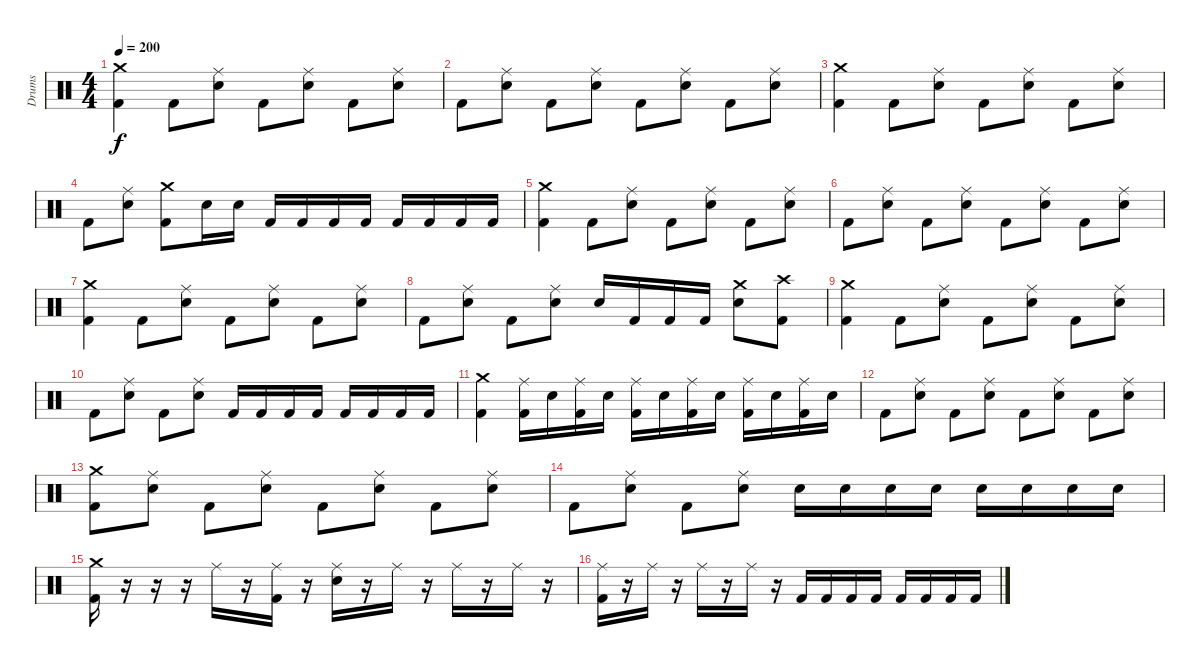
\track ("Drums" "Drums") {instrument percussion}
\staff {score}
\articulation defaults
\ts (4 4)
\section ("" "")
\tempo 200
\clef neutral
\ks c
("Crash medium (hit)" "Kick (hit) 2").4{dy f} "Kick (hit) 2".8 ("Ride (middle)" "Electric Snare (hit)").8 "Kick (hit) 2".8 ("Ride (middle)" "Electric Snare (hit)").8 "Kick (hit) 2".8 ("Ride (middle)" "Electric Snare (hit)").8 |
"Kick (hit) 2".8 ("Ride (middle)" "Electric Snare (hit)").8 "Kick (hit) 2".8 ("Ride (middle)" "Electric Snare (hit)").8 "Kick (hit) 2".8 ("Ride (middle)" "Electric Snare (hit)").8 "Kick (hit) 2".8 ("Ride (middle)" "Electric Snare (hit)").8 |
("Crash medium (hit)" "Kick (hit) 2").4 "Kick (hit) 2".8 ("Ride (middle)" "Electric Snare (hit)").8 "Kick (hit) 2".8 ("Ride (middle)" "Electric Snare (hit)").8 "Kick (hit) 2".8 ("Ride (middle)" "Electric Snare (hit)").8 |
"Kick (hit) 2".8 ("Ride (middle)" "Electric Snare (hit)").8 ("Crash medium (hit)" "Kick (hit) 2").8 "Electric Snare (hit)".16 "Electric Snare (hit)".16 "Kick (hit) 2".16 "Kick (hit) 2".16 "Kick (hit) 2".16 "Kick (hit) 2".16 "Kick (hit) 2".16 "Kick (hit) 2".16 "Kick (hit) 2".16 "Kick (hit) 2".16 |
\section ("" "")
("Crash medium (hit)" "Kick (hit) 2").4 "Kick (hit) 2".8 ("Ride (middle)" "Electric Snare (hit)").8 "Kick (hit) 2".8 ("Ride (middle)" "Electric Snare (hit)").8 "Kick (hit) 2".8 ("Ride (middle)" "Electric Snare (hit)").8 |
"Kick (hit) 2".8 ("Ride (middle)" "Electric Snare (hit)").8 "Kick (hit) 2".8 ("Ride (middle)" "Electric Snare (hit)").8 "Kick (hit) 2".8 ("Ride (middle)" "Electric Snare (hit)").8 "Kick (hit) 2".8 ("Ride (middle)" "Electric Snare (hit)").8 |
("Crash medium (hit)" "Kick (hit) 2").4 "Kick (hit) 2".8 ("Ride (middle)" "Electric Snare (hit)").8 "Kick (hit) 2".8 ("Ride (middle)" "Electric Snare (hit)").8 "Kick (hit) 2".8 ("Ride (middle)" "Electric Snare (hit)").8 |
"Kick (hit) 2".8 ("Ride (middle)" "Electric Snare (hit)").8 "Kick (hit) 2".8 ("Ride (middle)" "Electric Snare (hit)").8 "Electric Snare (hit)".16 "Kick (hit) 2".16 "Kick (hit) 2".16 "Kick (hit) 2".16 ("Crash medium (hit)" "Electric Snare (hit)").8 ("Crash high (hit)" "Kick (hit) 2").8 |
\section ("" "")
("Crash medium (hit)" "Kick (hit) 2").4 "Kick (hit) 2".8 ("Ride (middle)" "Electric Snare (hit)").8 "Kick (hit) 2".8 ("Ride (middle)" "Electric Snare (hit)").8 "Kick (hit) 2".8 ("Ride (middle)" "Electric Snare (hit)").8 |
"Kick (hit) 2".8 ("Ride (middle)" "Electric Snare (hit)").8 "Kick (hit) 2".8 ("Ride (middle)" "Electric Snare (hit)").8 "Kick (hit) 2".16 "Kick (hit) 2".16 "Kick (hit) 2".16 "Kick (hit) 2".16 "Kick (hit) 2".16 "Kick (hit) 2".16 "Kick (hit) 2".16 "Kick (hit) 2".16 |
("Crash medium (hit)" "Kick (hit) 2").4 ("Ride (middle)" "Kick (hit) 2").16 "Electric Snare (hit)".16 ("Ride (middle)" "Kick (hit) 2").16 "Electric Snare (hit)".16 ("Ride (middle)" "Kick (hit) 2").16 "Electric Snare (hit)".16 ("Ride (middle)" "Kick (hit) 2").16 "Electric Snare (hit)".16 ("Ride (middle)" "Kick (hit) 2").16 "Electric Snare (hit)".16 ("Ride (middle)" "Kick (hit) 2").16 "Electric Snare (hit)".16 |
"Kick (hit) 2".8 ("Ride (middle)" "Electric Snare (hit)").8 "Kick (hit) 2".8 ("Ride (middle)" "Electric Snare (hit)").8 "Kick (hit) 2".8 ("Ride (middle)" "Electric Snare (hit)").8 "Kick (hit) 2".8 ("Ride (middle)" "Electric Snare (hit)").8 |
("Crash medium (hit)" "Kick (hit) 2").8 ("Ride (middle)" "Electric Snare (hit)").8 "Kick (hit) 2".8 ("Ride (middle)" "Electric Snare (hit)").8 "Kick (hit) 2".8 ("Ride (middle)" "Electric Snare (hit)").8 "Kick (hit) 2".8 ("Ride (middle)" "Electric Snare (hit)").8 |
"Kick (hit) 2".8 ("Ride (middle)" "Electric Snare (hit)").8 "Kick (hit) 2".8 ("Ride (middle)" "Electric Snare (hit)").8 "Electric Snare (hit)".16 "Electric Snare (hit)".16 "Electric Snare (hit)".16 "Electric Snare (hit)".16 "Electric Snare (hit)".16 "Electric Snare (hit)".16 "Electric Snare (hit)".16 "Electric Snare (hit)".16 |
("Crash medium (hit)" "Kick (hit) 2").16 r.16 r.16 r.16 "Ride (middle)".16 r.16 ("Ride (middle)" "Kick (hit) 2").16 r.16 ("Ride (middle)" "Electric Snare (hit)").16 r.16 "Ride (middle)".16 r.16 "Ride (middle)".16 r.16 "Ride (middle)".16 r.16 |
("Ride (middle)" "Kick (hit) 2").16 r.16 "Ride (middle)".16 r.16 "Ride (middle)".16 r.16 "Ride (middle)".16 r.16 "Kick (hit) 2".16 "Kick (hit) 2".16 "Kick (hit) 2".16 "Kick (hit) 2".16 "Kick (hit) 2".16 "Kick (hit) 2".16 "Kick (hit) 2".16 "Kick (hit) 2".16
